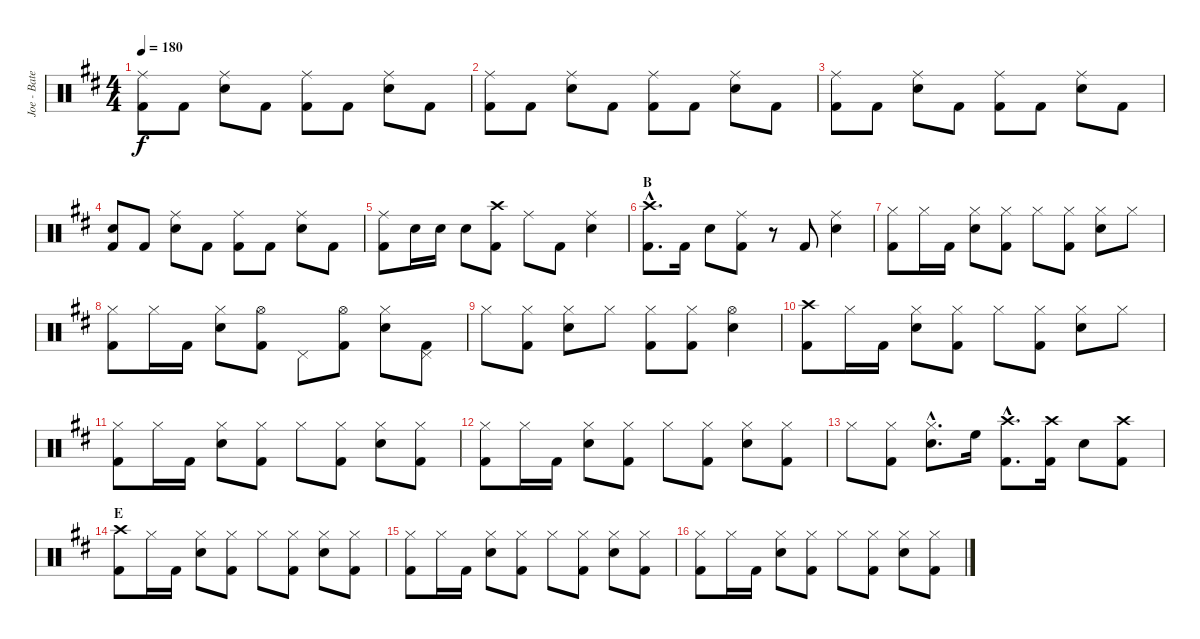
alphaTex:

\track ("Joe - Batería -" "Joe - Bate") {instrument percussion}
\staff {score}
\articulation defaults
\ts (4 4)
\tempo 180
\clef neutral
\ks bminor
("Ride (middle)" "Kick (hit) 2").8{dy f} "Kick (hit) 2".8 ("Ride (middle)" "Snare (hit) 2").8 "Kick (hit) 2".8 ("Ride (middle)" "Kick (hit) 2").8 "Kick (hit) 2".8 ("Ride (middle)" "Snare (hit) 2").8 "Kick (hit) 2".8 |
("Ride (middle)" "Kick (hit) 2").8 "Kick (hit) 2".8 ("Ride (middle)" "Snare (hit) 2").8 "Kick (hit) 2".8 ("Ride (middle)" "Kick (hit) 2").8 "Kick (hit) 2".8 ("Ride (middle)" "Snare (hit) 2").8 "Kick (hit) 2".8 |
("Ride (middle)" "Kick (hit) 2").8 "Kick (hit) 2".8 ("Ride (middle)" "Snare (hit) 2").8 "Kick (hit) 2".8 ("Ride (middle)" "Kick (hit) 2").8 "Kick (hit) 2".8 ("Ride (middle)" "Snare (hit) 2").8 "Kick (hit) 2".8 |
("Snare (hit)" "Kick (hit) 2").8 "Kick (hit) 2".8 ("Ride (middle)" "Snare (hit) 2").8 "Kick (hit) 2".8 ("Ride (middle)" "Kick (hit) 2").8 "Kick (hit) 2".8 ("Ride (middle)" "Snare (hit) 2").8 "Kick (hit) 2".8 |
("Ride (middle)" "Kick (hit) 2").8 "Snare (hit) 2".16 "Snare (hit) 2".16 "Snare (hit) 2".8 ("Crash high (hit)" "Kick (hit) 2").8 "Ride (middle)".8 "Kick (hit) 2".8 ("Ride (middle)" "Snare (hit) 2").4 |
\section ("" "B")
("Crash high (hit)"{hac} "Kick (hit) 2"{hac}).8{d} "Kick (hit) 2".16 "Snare (hit) 2".8 ("Ride (middle)" "Kick (hit) 2").8 r.8 "Kick (hit) 2".8 ("Ride (middle)" "Snare (hit) 2").4 |
("Hi-Hat (closed)" "Kick (hit) 2").8 "Hi-Hat (closed)".16 "Kick (hit) 2".16 ("Hi-Hat (closed)" "Snare (hit) 2").8 ("Hi-Hat (closed)" "Kick (hit) 2").8 "Hi-Hat (closed)".8 ("Hi-Hat (closed)" "Kick (hit) 2").8 ("Hi-Hat (closed)" "Snare (hit) 2").8 "Hi-Hat (closed)".8 |
("Hi-Hat (closed)" "Kick (hit) 2").8 "Hi-Hat (closed)".16 "Kick (hit) 2".16 ("Hi-Hat (closed)" "Snare (hit) 2").8 ("Hi-Hat (open)" "Kick (hit) 2").8 "Pedal Hi-Hat (hit)".8 ("Hi-Hat (open)" "Kick (hit) 2").8 ("Hi-Hat (closed)" "Snare (hit) 2").8 ("Pedal Hi-Hat (hit)" "Kick (hit) 2").8 |
"Hi-Hat (closed)".8 ("Hi-Hat (closed)" "Kick (hit) 2").8 ("Hi-Hat (closed)" "Snare (hit) 2").8 "Hi-Hat (closed)".8 ("Hi-Hat (closed)" "Kick (hit) 2").8 ("Hi-Hat (closed)" "Kick (hit) 2").8 ("Hi-Hat (open)" "Snare (hit) 2").4 |
\section ("" "")
("Crash high (hit)" "Kick (hit) 2").8 "Hi-Hat (closed)".16 "Kick (hit) 2".16 ("Hi-Hat (closed)" "Snare (hit) 2").8 ("Hi-Hat (closed)" "Kick (hit) 2").8 "Hi-Hat (closed)".8 ("Hi-Hat (closed)" "Kick (hit) 2").8 ("Hi-Hat (closed)" "Snare (hit) 2").8 "Hi-Hat (closed)".8 |
("Hi-Hat (closed)" "Kick (hit) 2").8 "Hi-Hat (closed)".16 "Kick (hit) 2".16 ("Hi-Hat (closed)" "Snare (hit) 2").8 ("Hi-Hat (closed)" "Kick (hit) 2").8 "Hi-Hat (closed)".8 ("Hi-Hat (closed)" "Kick (hit) 2").8 ("Hi-Hat (closed)" "Snare (hit) 2").8 ("Hi-Hat (closed)" "Kick (hit) 2").8 |
("Hi-Hat (closed)" "Kick (hit) 2").8 "Hi-Hat (closed)".16 "Kick (hit) 2".16 ("Hi-Hat (closed)" "Snare (hit) 2").8 ("Hi-Hat (closed)" "Kick (hit) 2").8 "Hi-Hat (closed)".8 ("Hi-Hat (closed)" "Kick (hit) 2").8 ("Hi-Hat (closed)" "Snare (hit) 2").8 ("Hi-Hat (closed)" "Kick (hit) 2").8 |
"Hi-Hat (closed)".8 ("Hi-Hat (closed)" "Kick (hit) 2").8 ("Hi-Hat (closed)"{hac} "Snare (hit) 2"{hac}).8{d} "High Floor Tom (hit)".16 ("Crash high (hit)"{hac} "Kick (hit) 2"{hac}).8{d} ("Crash high (hit)" "Kick (hit) 2").16 "Snare (hit) 2".8 ("Crash high (hit)" "Kick (hit) 2").8 |
\section ("" "E")
("Crash high (hit)" "Kick (hit) 2").8 "Hi-Hat (closed)".16 "Kick (hit) 2".16 ("Hi-Hat (closed)" "Snare (hit) 2").8 ("Hi-Hat (closed)" "Kick (hit) 2").8 "Hi-Hat (closed)".8 ("Hi-Hat (closed)" "Kick (hit) 2").8 ("Hi-Hat (closed)" "Snare (hit) 2").8 ("Hi-Hat (closed)" "Kick (hit) 2").8 |
("Hi-Hat (closed)" "Kick (hit) 2").8 "Hi-Hat (closed)".16 "Kick (hit) 2".16 ("Hi-Hat (closed)" "Snare (hit) 2").8 ("Hi-Hat (closed)" "Kick (hit) 2").8 "Hi-Hat (closed)".8 ("Hi-Hat (closed)" "Kick (hit) 2").8 ("Hi-Hat (closed)" "Snare (hit) 2").8 ("Hi-Hat (closed)" "Kick (hit) 2").8 |
\section ("" "")
("Hi-Hat (closed)" "Kick (hit) 2").8 "Hi-Hat (closed)".16 "Kick (hit) 2".16 ("Hi-Hat (closed)" "Snare (hit) 2").8 ("Hi-Hat (closed)" "Kick (hit) 2").8 "Hi-Hat (closed)".8 ("Hi-Hat (closed)" "Kick (hit) 2").8 ("Hi-Hat (closed)" "Snare (hit) 2").8 ("Hi-Hat (closed)" "Kick (hit) 2").8
